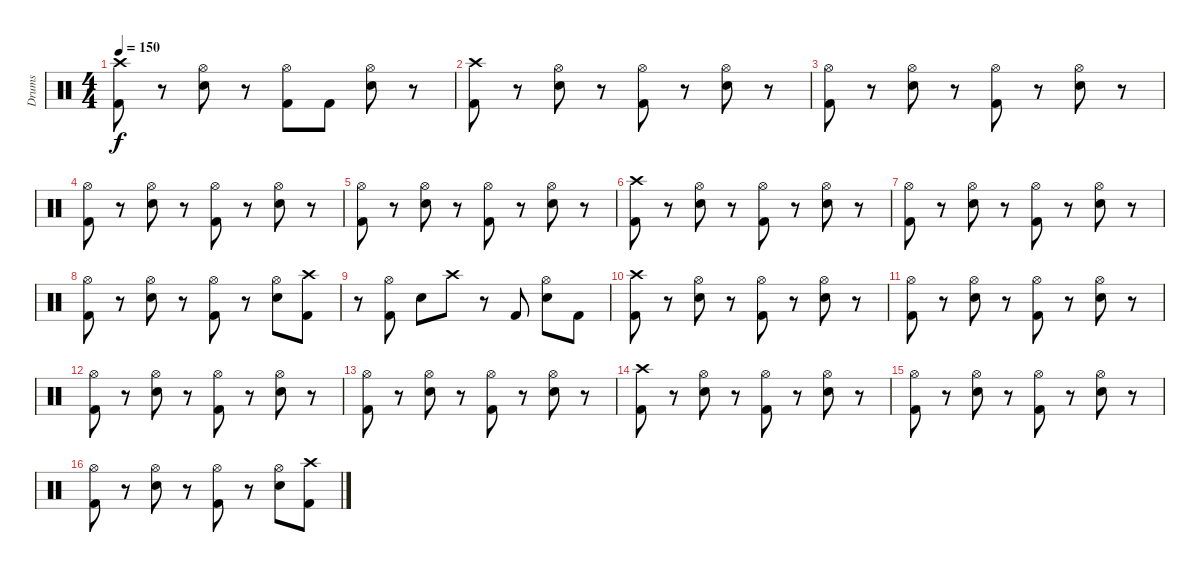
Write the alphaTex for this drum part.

\track ("Drums" "Drums") {instrument percussion}
\staff {score}
\articulation defaults
\ts (4 4)
\tempo 150
\clef neutral
\ks c
("Crash high (hit)" "Kick (hit) 2").8{dy f} r.8 ("Hi-Hat (open)" "Snare (hit) 2").8 r.8 ("Hi-Hat (open)" "Kick (hit) 2").8 "Kick (hit) 2".8 ("Hi-Hat (open)" "Snare (hit) 2").8 r.8 |
("Crash high (hit)" "Kick (hit) 2").8 r.8 ("Hi-Hat (open)" "Snare (hit) 2").8 r.8 ("Hi-Hat (open)" "Kick (hit) 2").8 r.8 ("Hi-Hat (open)" "Snare (hit) 2").8 r.8 |
("Hi-Hat (open)" "Kick (hit) 2").8 r.8 ("Hi-Hat (open)" "Snare (hit) 2").8 r.8 ("Hi-Hat (open)" "Kick (hit) 2").8 r.8 ("Hi-Hat (open)" "Snare (hit) 2").8 r.8 |
("Hi-Hat (open)" "Kick (hit) 2").8 r.8 ("Hi-Hat (open)" "Snare (hit) 2").8 r.8 ("Hi-Hat (open)" "Kick (hit) 2").8 r.8 ("Hi-Hat (open)" "Snare (hit) 2").8 r.8 |
("Hi-Hat (open)" "Kick (hit) 2").8 r.8 ("Hi-Hat (open)" "Snare (hit) 2").8 r.8 ("Hi-Hat (open)" "Kick (hit) 2").8 r.8 ("Hi-Hat (open)" "Snare (hit) 2").8 r.8 |
("Crash high (hit)" "Kick (hit) 2").8 r.8 ("Hi-Hat (open)" "Snare (hit) 2").8 r.8 ("Hi-Hat (open)" "Kick (hit) 2").8 r.8 ("Hi-Hat (open)" "Snare (hit) 2").8 r.8 |
("Hi-Hat (open)" "Kick (hit) 2").8 r.8 ("Hi-Hat (open)" "Snare (hit) 2").8 r.8 ("Hi-Hat (open)" "Kick (hit) 2").8 r.8 ("Hi-Hat (open)" "Snare (hit) 2").8 r.8 |
("Hi-Hat (open)" "Kick (hit) 2").8 r.8 ("Hi-Hat (open)" "Snare (hit) 2").8 r.8 ("Hi-Hat (open)" "Kick (hit) 2").8 r.8 ("Hi-Hat (open)" "Snare (hit) 2").8 ("Crash high (hit)" "Kick (hit) 2").8 |
r.8 ("Hi-Hat (open)" "Kick (hit) 2").8 "Snare (hit) 2".8 "Crash high (hit)".8 r.8 "Kick (hit) 2".8 ("Hi-Hat (open)" "Snare (hit) 2").8 "Kick (hit) 2".8 |
("Crash high (hit)" "Kick (hit) 2").8 r.8 ("Hi-Hat (open)" "Snare (hit) 2").8 r.8 ("Hi-Hat (open)" "Kick (hit) 2").8 r.8 ("Hi-Hat (open)" "Snare (hit) 2").8 r.8 |
("Hi-Hat (open)" "Kick (hit) 2").8 r.8 ("Hi-Hat (open)" "Snare (hit) 2").8 r.8 ("Hi-Hat (open)" "Kick (hit) 2").8 r.8 ("Hi-Hat (open)" "Snare (hit) 2").8 r.8 |
("Hi-Hat (open)" "Kick (hit) 2").8 r.8 ("Hi-Hat (open)" "Snare (hit) 2").8 r.8 ("Hi-Hat (open)" "Kick (hit) 2").8 r.8 ("Hi-Hat (open)" "Snare (hit) 2").8 r.8 |
("Hi-Hat (open)" "Kick (hit) 2").8 r.8 ("Hi-Hat (open)" "Snare (hit) 2").8 r.8 ("Hi-Hat (open)" "Kick (hit) 2").8 r.8 ("Hi-Hat (open)" "Snare (hit) 2").8 r.8 |
("Crash high (hit)" "Kick (hit) 2").8 r.8 ("Hi-Hat (open)" "Snare (hit) 2").8 r.8 ("Hi-Hat (open)" "Kick (hit) 2").8 r.8 ("Hi-Hat (open)" "Snare (hit) 2").8 r.8 |
("Hi-Hat (open)" "Kick (hit) 2").8 r.8 ("Hi-Hat (open)" "Snare (hit) 2").8 r.8 ("Hi-Hat (open)" "Kick (hit) 2").8 r.8 ("Hi-Hat (open)" "Snare (hit) 2").8 r.8 |
("Hi-Hat (open)" "Kick (hit) 2").8 r.8 ("Hi-Hat (open)" "Snare (hit) 2").8 r.8 ("Hi-Hat (open)" "Kick (hit) 2").8 r.8 ("Hi-Hat (open)" "Snare (hit) 2").8 ("Crash high (hit)" "Kick (hit) 2").8
